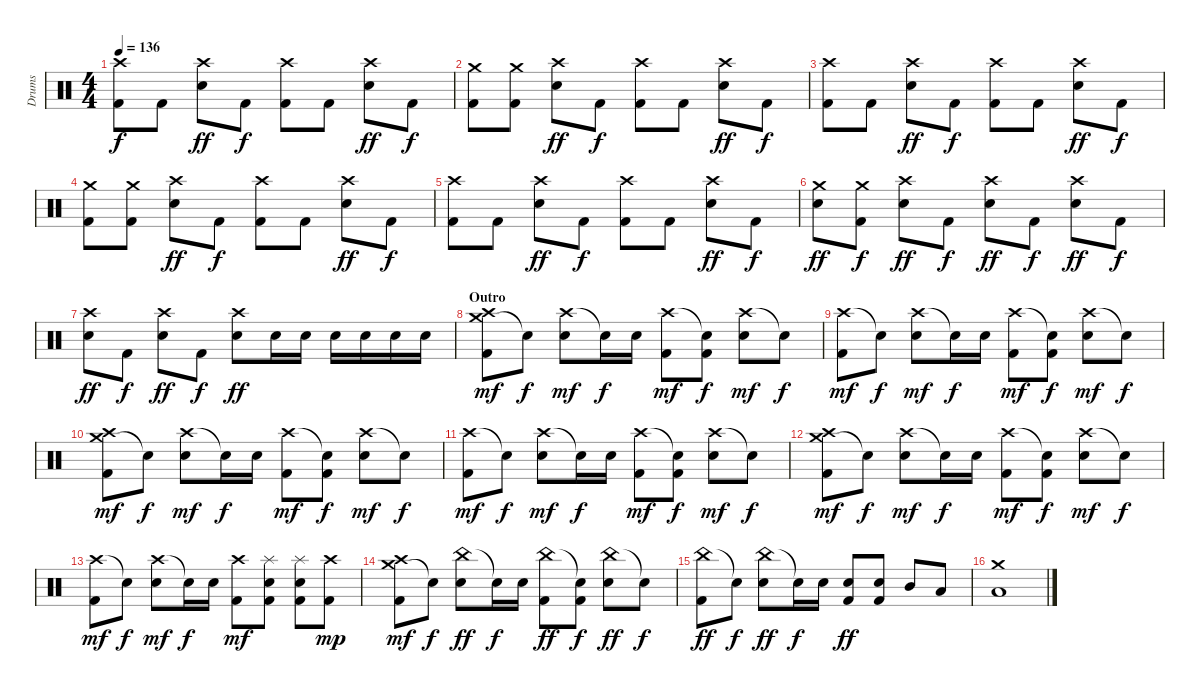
\track ("Drums" "Drums") {instrument percussion}
\staff {score}
\articulation defaults
\ts (4 4)
\tempo 136
\clef neutral
\ks c
("Crash high (hit)" "Kick (hit) 2").8{dy f} "Kick (hit) 2".8 ("Crash high (hit)" "Electric Snare (hit)").8{dy ff} "Kick (hit) 2".8{dy f} ("Crash high (hit)" "Kick (hit) 2").8 "Kick (hit) 2".8 ("Crash high (hit)" "Electric Snare (hit)").8{dy ff} "Kick (hit) 2".8{dy f} |
("Crash medium (hit)" "Kick (hit) 2").8 ("Crash medium (hit)" "Kick (hit) 2").8 ("Crash high (hit)" "Electric Snare (hit)").8{dy ff} "Kick (hit) 2".8{dy f} ("Crash high (hit)" "Kick (hit) 2").8 "Kick (hit) 2".8 ("Crash high (hit)" "Electric Snare (hit)").8{dy ff} "Kick (hit) 2".8{dy f} |
("Crash high (hit)" "Kick (hit) 2").8 "Kick (hit) 2".8 ("Crash high (hit)" "Electric Snare (hit)").8{dy ff} "Kick (hit) 2".8{dy f} ("Crash high (hit)" "Kick (hit) 2").8 "Kick (hit) 2".8 ("Crash high (hit)" "Electric Snare (hit)").8{dy ff} "Kick (hit) 2".8{dy f} |
("Crash medium (hit)" "Kick (hit) 2").8 ("Crash medium (hit)" "Kick (hit) 2").8 ("Crash high (hit)" "Electric Snare (hit)").8{dy ff} "Kick (hit) 2".8{dy f} ("Crash high (hit)" "Kick (hit) 2").8 "Kick (hit) 2".8 ("Crash high (hit)" "Electric Snare (hit)").8{dy ff} "Kick (hit) 2".8{dy f} |
("Crash high (hit)" "Kick (hit) 2").8 "Kick (hit) 2".8 ("Crash high (hit)" "Electric Snare (hit)").8{dy ff} "Kick (hit) 2".8{dy f} ("Crash high (hit)" "Kick (hit) 2").8 "Kick (hit) 2".8 ("Crash high (hit)" "Electric Snare (hit)").8{dy ff} "Kick (hit) 2".8{dy f} |
("Crash medium (hit)" "Electric Snare (hit)").8{dy ff} ("Crash medium (hit)" "Kick (hit) 2").8{dy f} ("Crash high (hit)" "Electric Snare (hit)").8{dy ff} "Kick (hit) 2".8{dy f} ("Crash high (hit)" "Electric Snare (hit)").8{dy ff} "Kick (hit) 2".8{dy f} ("Crash high (hit)" "Electric Snare (hit)").8{dy ff} "Kick (hit) 2".8{dy f} |
("Crash high (hit)" "Electric Snare (hit)").8{dy ff} "Kick (hit) 2".8{dy f} ("Crash high (hit)" "Electric Snare (hit)").8{dy ff} "Kick (hit) 2".8{dy f} ("Crash high (hit)" "Electric Snare (hit)").8{dy ff} "Electric Snare (hit)".16 "Electric Snare (hit)".16 "Electric Snare (hit)".16 "Electric Snare (hit)".16 "Electric Snare (hit)".16 "Electric Snare (hit)".16 |
\section ("" "Outro")
("Crash medium (hit)" "Crash high (hit)" "Kick (hit) 2").8{dy mf} "Snare (hit)"{t}.8{dy f} ("Crash high (hit)" "Electric Snare (hit)").8{dy mf} "Snare (hit)"{t}.16{dy f} "Electric Snare (hit)".16 ("Crash high (hit)" "Kick (hit) 2").8{dy mf} ("Snare (hit)"{t} "Kick (hit) 2").8{dy f} ("Crash high (hit)" "Electric Snare (hit)").8{dy mf} "Snare (hit)"{t}.8{dy f} |
("Crash high (hit)" "Kick (hit) 2").8{dy mf} "Snare (hit)"{t}.8{dy f} ("Crash high (hit)" "Electric Snare (hit)").8{dy mf} "Snare (hit)"{t}.16{dy f} "Electric Snare (hit)".16 ("Crash high (hit)" "Kick (hit) 2").8{dy mf} ("Snare (hit)"{t} "Kick (hit) 2").8{dy f} ("Crash high (hit)" "Electric Snare (hit)").8{dy mf} "Snare (hit)"{t}.8{dy f} |
("Crash medium (hit)" "Crash high (hit)" "Kick (hit) 2").8{dy mf} "Snare (hit)"{t}.8{dy f} ("Crash high (hit)" "Electric Snare (hit)").8{dy mf} "Snare (hit)"{t}.16{dy f} "Electric Snare (hit)".16 ("Crash high (hit)" "Kick (hit) 2").8{dy mf} ("Snare (hit)"{t} "Kick (hit) 2").8{dy f} ("Crash high (hit)" "Electric Snare (hit)").8{dy mf} "Snare (hit)"{t}.8{dy f} |
("Crash high (hit)" "Kick (hit) 2").8{dy mf} "Snare (hit)"{t}.8{dy f} ("Crash high (hit)" "Electric Snare (hit)").8{dy mf} "Snare (hit)"{t}.16{dy f} "Electric Snare (hit)".16 ("Crash high (hit)" "Kick (hit) 2").8{dy mf} ("Snare (hit)"{t} "Kick (hit) 2").8{dy f} ("Crash high (hit)" "Electric Snare (hit)").8{dy mf} "Snare (hit)"{t}.8{dy f} |
("Crash medium (hit)" "Crash high (hit)" "Kick (hit) 2").8{dy mf} "Snare (hit)"{t}.8{dy f} ("Crash high (hit)" "Electric Snare (hit)").8{dy mf} "Snare (hit)"{t}.16{dy f} "Electric Snare (hit)".16 ("Crash high (hit)" "Kick (hit) 2").8{dy mf} ("Snare (hit)"{t} "Kick (hit) 2").8{dy f} ("Crash high (hit)" "Electric Snare (hit)").8{dy mf} "Snare (hit)"{t}.8{dy f} |
("Crash high (hit)" "Kick (hit) 2").8{dy mf} "Snare (hit)"{t}.8{dy f} ("Crash high (hit)" "Electric Snare (hit)").8{dy mf} "Snare (hit)"{t}.16{dy f} "Electric Snare (hit)".16 ("Crash high (hit)" "Kick (hit) 2").8{dy mf} ("Splash (hit)" "Electric Snare (hit)" "Kick (hit) 2").8 ("Splash (hit)" "Electric Snare (hit)" "Kick (hit) 2").8 ("Crash high (hit)" "Kick (hit) 2").8{dy mp} |
("Crash medium (hit)" "Crash high (hit)" "Kick (hit) 2").8{dy mf} "Snare (hit)"{t}.8{dy f} ("China (hit)" "Electric Snare (hit)").8{dy ff} "Snare (hit)"{t}.16{dy f} "Electric Snare (hit)".16 ("China (hit)" "Kick (hit) 2").8{dy ff} ("Snare (hit)"{t} "Kick (hit) 2").8{dy f} ("China (hit)" "Electric Snare (hit)").8{dy ff} "Snare (hit)"{t}.8{dy f} |
("China (hit)" "Kick (hit) 2").8{dy ff} "Snare (hit)"{t}.8{dy f} ("China (hit)" "Electric Snare (hit)").8{dy ff} "Snare (hit)"{t}.16{dy f} "Electric Snare (hit)".16 ("Electric Snare (hit)" "Kick (hit) 2").8{dy ff} ("Electric Snare (hit)" "Kick (hit) 2").8 "Mid Tom (hit)".8 "Low Tom (hit)".8 |
("Crash medium (hit)" "Low Floor Tom (hit)").1
